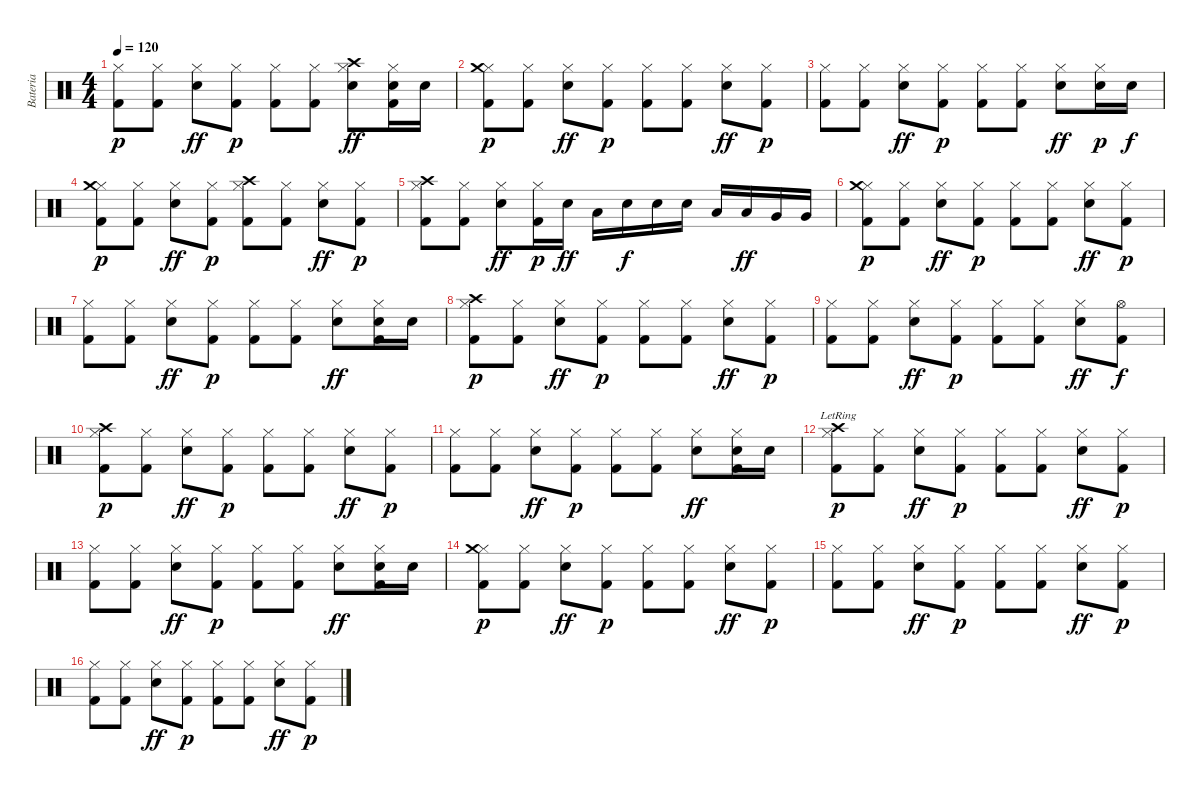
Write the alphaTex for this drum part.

\track ("Bateria" "Bateria") {instrument percussion}
\staff {score}
\articulation defaults
\ts (4 4)
\tempo 120
\clef neutral
\ks c
("Hi-Hat (closed)" "Kick (hit) 2").8{dy p} ("Hi-Hat (closed)" "Kick (hit) 2").8 ("Hi-Hat (closed)" "Snare (hit) 2").8{dy ff} ("Hi-Hat (closed)" "Kick (hit) 2").8{dy p} ("Hi-Hat (closed)" "Kick (hit) 2").8 ("Hi-Hat (closed)" "Kick (hit) 2").8 ("Hi-Hat (closed)" "Snare (hit) 2" "Crash high (hit)").8{dy ff} ("Hi-Hat (closed)" "Snare (hit) 2" "Kick (hit) 2").16 "Snare (hit) 2".16 |
("Hi-Hat (closed)" "Kick (hit) 2" "Crash medium (hit)").8{dy p} ("Hi-Hat (closed)" "Kick (hit) 2").8 ("Hi-Hat (closed)" "Snare (hit) 2").8{dy ff} ("Hi-Hat (closed)" "Kick (hit) 2").8{dy p} ("Hi-Hat (closed)" "Kick (hit) 2").8 ("Hi-Hat (closed)" "Kick (hit) 2").8 ("Hi-Hat (closed)" "Snare (hit) 2").8{dy ff} ("Hi-Hat (closed)" "Kick (hit) 2").8{dy p} |
("Hi-Hat (closed)" "Kick (hit) 2").8 ("Hi-Hat (closed)" "Kick (hit) 2").8 ("Hi-Hat (closed)" "Snare (hit) 2").8{dy ff} ("Hi-Hat (closed)" "Kick (hit) 2").8{dy p} ("Hi-Hat (closed)" "Kick (hit) 2").8 ("Hi-Hat (closed)" "Kick (hit) 2").8 ("Hi-Hat (closed)" "Snare (hit) 2").8{dy ff} ("Hi-Hat (closed)" "Snare (hit) 2").16{dy p} "Snare (hit) 2".16{dy f} |
("Hi-Hat (closed)" "Kick (hit) 2" "Crash medium (hit)").8{dy p} ("Hi-Hat (closed)" "Kick (hit) 2").8 ("Hi-Hat (closed)" "Snare (hit) 2").8{dy ff} ("Hi-Hat (closed)" "Kick (hit) 2").8{dy p} ("Hi-Hat (closed)" "Crash high (hit)" "Kick (hit) 2").8 ("Hi-Hat (closed)" "Kick (hit) 2").8 ("Hi-Hat (closed)" "Snare (hit) 2").8{dy ff} ("Hi-Hat (closed)" "Kick (hit) 2").8{dy p} |
("Hi-Hat (closed)" "Kick (hit) 2" "Crash high (hit)").8 ("Hi-Hat (closed)" "Kick (hit) 2").8 ("Hi-Hat (closed)" "Snare (hit) 2").8{dy ff} ("Hi-Hat (closed)" "Kick (hit) 2").16{dy p} "Snare (hit) 2".16{dy ff} "Low Tom (hit)".16 "Snare (hit) 2".16{dy f} "Snare (hit) 2".16 "Snare (hit) 2".16 "Low Tom (hit)".16 "Low Tom (hit)".16{dy ff} "Very Low Tom (hit)".16 "Very Low Tom (hit)".16 |
("Hi-Hat (closed)" "Kick (hit) 2" "Crash medium (hit)").8{dy p} ("Hi-Hat (closed)" "Kick (hit) 2").8 ("Hi-Hat (closed)" "Snare (hit) 2").8{dy ff} ("Hi-Hat (closed)" "Kick (hit) 2").8{dy p} ("Hi-Hat (closed)" "Kick (hit) 2").8 ("Hi-Hat (closed)" "Kick (hit) 2").8 ("Hi-Hat (closed)" "Snare (hit) 2").8{dy ff} ("Hi-Hat (closed)" "Kick (hit) 2").8{dy p} |
("Hi-Hat (closed)" "Kick (hit) 2").8 ("Hi-Hat (closed)" "Kick (hit) 2").8 ("Hi-Hat (closed)" "Snare (hit) 2").8{dy ff} ("Hi-Hat (closed)" "Kick (hit) 2").8{dy p} ("Hi-Hat (closed)" "Kick (hit) 2").8 ("Hi-Hat (closed)" "Kick (hit) 2").8 ("Hi-Hat (closed)" "Snare (hit) 2").8{dy ff} ("Hi-Hat (closed)" "Snare (hit) 2" "Kick (hit) 2").16 "Snare (hit) 2".16 |
("Hi-Hat (closed)" "Kick (hit) 2" "Crash high (hit)").8{dy p} ("Hi-Hat (closed)" "Kick (hit) 2").8 ("Hi-Hat (closed)" "Snare (hit) 2").8{dy ff} ("Hi-Hat (closed)" "Kick (hit) 2").8{dy p} ("Hi-Hat (closed)" "Kick (hit) 2").8 ("Hi-Hat (closed)" "Kick (hit) 2").8 ("Hi-Hat (closed)" "Snare (hit) 2").8{dy ff} ("Hi-Hat (closed)" "Kick (hit) 2").8{dy p} |
("Hi-Hat (closed)" "Kick (hit) 2").8 ("Hi-Hat (closed)" "Kick (hit) 2").8 ("Hi-Hat (closed)" "Snare (hit) 2").8{dy ff} ("Hi-Hat (closed)" "Kick (hit) 2").8{dy p} ("Hi-Hat (closed)" "Kick (hit) 2").8 ("Hi-Hat (closed)" "Kick (hit) 2").8 ("Hi-Hat (closed)" "Snare (hit) 2").8{dy ff} ("Hi-Hat (open)" "Kick (hit) 2").8{dy f} |
("Hi-Hat (closed)" "Kick (hit) 2" "Crash high (hit)").8{dy p} ("Hi-Hat (closed)" "Kick (hit) 2").8 ("Hi-Hat (closed)" "Snare (hit) 2").8{dy ff} ("Hi-Hat (closed)" "Kick (hit) 2").8{dy p} ("Hi-Hat (closed)" "Kick (hit) 2").8 ("Hi-Hat (closed)" "Kick (hit) 2").8 ("Hi-Hat (closed)" "Snare (hit) 2").8{dy ff} ("Hi-Hat (closed)" "Kick (hit) 2").8{dy p} |
("Hi-Hat (closed)" "Kick (hit) 2").8 ("Hi-Hat (closed)" "Kick (hit) 2").8 ("Hi-Hat (closed)" "Snare (hit) 2").8{dy ff} ("Hi-Hat (closed)" "Kick (hit) 2").8{dy p} ("Hi-Hat (closed)" "Kick (hit) 2").8 ("Hi-Hat (closed)" "Kick (hit) 2").8 ("Hi-Hat (closed)" "Snare (hit) 2").8{dy ff} ("Hi-Hat (closed)" "Snare (hit) 2" "Kick (hit) 2").16 "Snare (hit) 2".16 |
("Hi-Hat (closed)" "Kick (hit) 2" "Crash high (hit)"{lr}).8{dy p} ("Hi-Hat (closed)" "Kick (hit) 2").8 ("Hi-Hat (closed)" "Snare (hit) 2").8{dy ff} ("Hi-Hat (closed)" "Kick (hit) 2").8{dy p} ("Hi-Hat (closed)" "Kick (hit) 2").8 ("Hi-Hat (closed)" "Kick (hit) 2").8 ("Hi-Hat (closed)" "Snare (hit) 2").8{dy ff} ("Hi-Hat (closed)" "Kick (hit) 2").8{dy p} |
("Hi-Hat (closed)" "Kick (hit) 2").8 ("Hi-Hat (closed)" "Kick (hit) 2").8 ("Hi-Hat (closed)" "Snare (hit) 2").8{dy ff} ("Hi-Hat (closed)" "Kick (hit) 2").8{dy p} ("Hi-Hat (closed)" "Kick (hit) 2").8 ("Hi-Hat (closed)" "Kick (hit) 2").8 ("Hi-Hat (closed)" "Snare (hit) 2").8{dy ff} ("Hi-Hat (closed)" "Snare (hit) 2" "Kick (hit) 2").16 "Snare (hit) 2".16 |
("Hi-Hat (closed)" "Kick (hit) 2" "Crash medium (hit)").8{dy p} ("Hi-Hat (closed)" "Kick (hit) 2").8 ("Hi-Hat (closed)" "Snare (hit) 2").8{dy ff} ("Hi-Hat (closed)" "Kick (hit) 2").8{dy p} ("Hi-Hat (closed)" "Kick (hit) 2").8 ("Hi-Hat (closed)" "Kick (hit) 2").8 ("Hi-Hat (closed)" "Snare (hit) 2").8{dy ff} ("Hi-Hat (closed)" "Kick (hit) 2").8{dy p} |
("Hi-Hat (closed)" "Kick (hit) 2").8 ("Hi-Hat (closed)" "Kick (hit) 2").8 ("Hi-Hat (closed)" "Snare (hit) 2").8{dy ff} ("Hi-Hat (closed)" "Kick (hit) 2").8{dy p} ("Hi-Hat (closed)" "Kick (hit) 2").8 ("Hi-Hat (closed)" "Kick (hit) 2").8 ("Hi-Hat (closed)" "Snare (hit) 2").8{dy ff} ("Hi-Hat (closed)" "Kick (hit) 2").8{dy p} |
("Hi-Hat (closed)" "Kick (hit) 2").8 ("Hi-Hat (closed)" "Kick (hit) 2").8 ("Hi-Hat (closed)" "Snare (hit) 2").8{dy ff} ("Hi-Hat (closed)" "Kick (hit) 2").8{dy p} ("Hi-Hat (closed)" "Kick (hit) 2").8 ("Hi-Hat (closed)" "Kick (hit) 2").8 ("Hi-Hat (closed)" "Snare (hit) 2").8{dy ff} ("Hi-Hat (closed)" "Kick (hit) 2").8{dy p}
